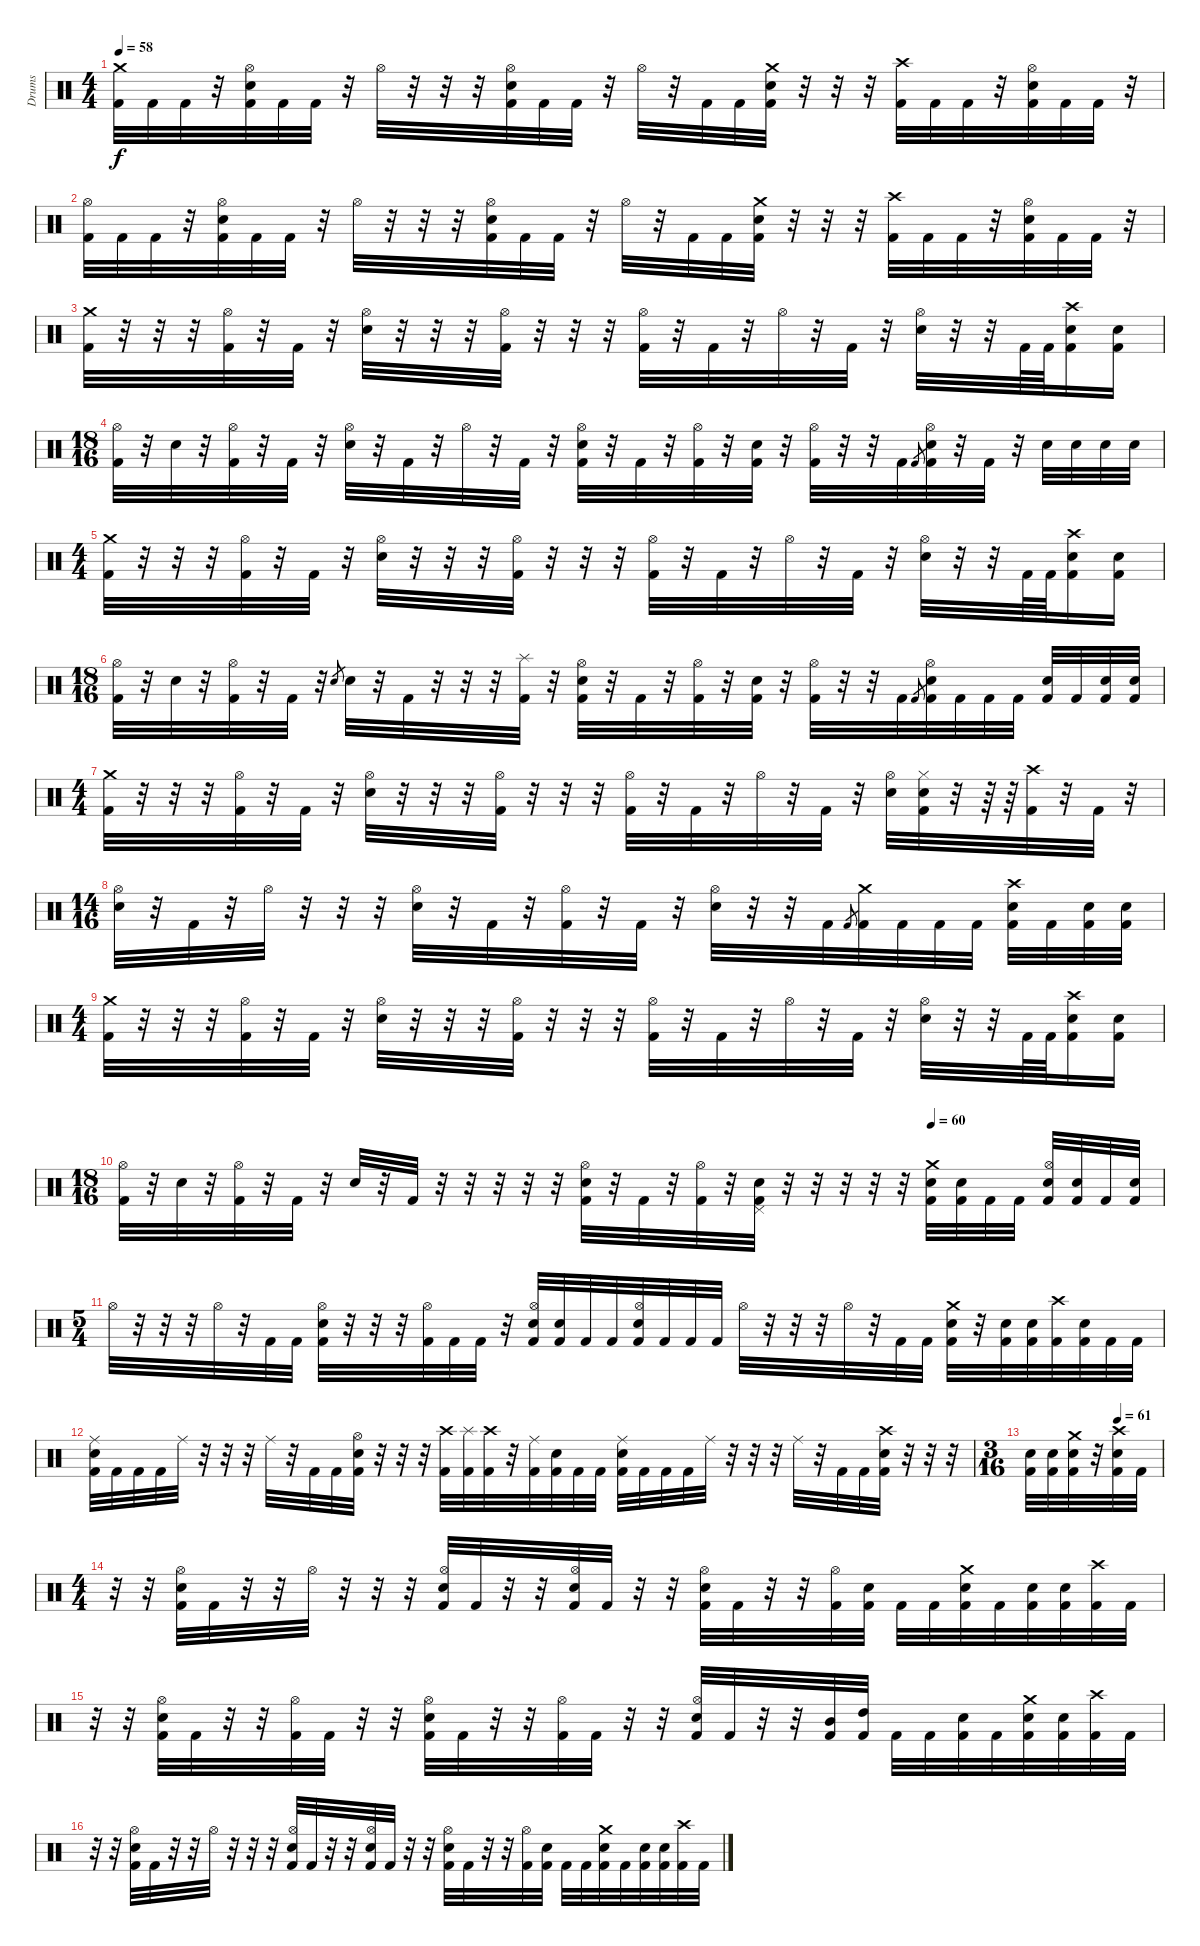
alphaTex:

\track ("Drums" "Drums") {instrument percussion}
\staff {score}
\articulation defaults
\ts (4 4)
\tempo 58
\clef neutral
\ks c
("Crash medium (hit)" "Kick (hit) 2").32{dy f} "Kick (hit) 2".32 "Kick (hit) 2".32 r.32 ("Hi-Hat (open)" "Electric Snare (hit)" "Kick (hit) 2").32 "Kick (hit) 2".32 "Kick (hit) 2".32 r.32 "Hi-Hat (open)".32 r.32 r.32 r.32 ("Hi-Hat (open)" "Electric Snare (hit)" "Kick (hit) 2").32 "Kick (hit) 2".32 "Kick (hit) 2".32 r.32 "Hi-Hat (open)".32 r.32 "Kick (hit) 2".32 "Kick (hit) 2".32 ("Crash medium (hit)" "Electric Snare (hit)" "Kick (hit) 2").32 r.32 r.32 r.32 ("Crash high (hit)" "Kick (hit) 2").32 "Kick (hit) 2".32 "Kick (hit) 2".32 r.32 ("Hi-Hat (open)" "Electric Snare (hit)" "Kick (hit) 2").32 "Kick (hit) 2".32 "Kick (hit) 2".32 r.32 |
("Hi-Hat (open)" "Kick (hit) 2").32 "Kick (hit) 2".32 "Kick (hit) 2".32 r.32 ("Hi-Hat (open)" "Electric Snare (hit)" "Kick (hit) 2").32 "Kick (hit) 2".32 "Kick (hit) 2".32 r.32 "Hi-Hat (open)".32 r.32 r.32 r.32 ("Hi-Hat (open)" "Electric Snare (hit)" "Kick (hit) 2").32 "Kick (hit) 2".32 "Kick (hit) 2".32 r.32 "Hi-Hat (open)".32 r.32 "Kick (hit) 2".32 "Kick (hit) 2".32 ("Crash medium (hit)" "Electric Snare (hit)" "Kick (hit) 2").32 r.32 r.32 r.32 ("Crash high (hit)" "Kick (hit) 2").32 "Kick (hit) 2".32 "Kick (hit) 2".32 r.32 ("Hi-Hat (open)" "Electric Snare (hit)" "Kick (hit) 2").32 "Kick (hit) 2".32 "Kick (hit) 2".32 r.32 |
("Crash medium (hit)" "Kick (hit) 2").32 r.32 r.32 r.32 ("Hi-Hat (open)" "Kick (hit) 2").32 r.32 "Kick (hit) 2".32 r.32 ("Hi-Hat (open)" "Electric Snare (hit)").32 r.32 r.32 r.32 ("Hi-Hat (open)" "Kick (hit) 2").32 r.32 r.32 r.32 ("Hi-Hat (open)" "Kick (hit) 2").32 r.32 "Kick (hit) 2".32 r.32 "Hi-Hat (open)".32 r.32 "Kick (hit) 2".32 r.32 ("Hi-Hat (open)" "Electric Snare (hit)").32 r.32 r.32 "Kick (hit) 2".64 "Kick (hit) 2".64 ("Crash high (hit)" "Electric Snare (hit)" "Kick (hit) 2").16 ("Electric Snare (hit)" "Kick (hit) 2").16 |
\ts (18 16)
("Hi-Hat (open)" "Kick (hit) 2").32 r.32 "Electric Snare (hit)".32 r.32 ("Hi-Hat (open)" "Kick (hit) 2").32 r.32 "Kick (hit) 2".32 r.32 ("Hi-Hat (open)" "Electric Snare (hit)").32 r.32 "Kick (hit) 2".32 r.32 "Hi-Hat (open)".32 r.32 "Kick (hit) 2".32 r.32 ("Hi-Hat (open)" "Electric Snare (hit)" "Kick (hit) 2").32 r.32 "Kick (hit) 2".32 r.32 ("Hi-Hat (open)" "Kick (hit) 2").32 r.32 ("Electric Snare (hit)" "Kick (hit) 2").32 r.32 ("Hi-Hat (open)" "Kick (hit) 2").32 r.32 r.32 "Kick (hit) 2".32 "Kick (hit) 2".8{gr} ("Hi-Hat (open)" "Electric Snare (hit)" "Kick (hit) 2").32 r.32 "Kick (hit) 2".32 r.32 "Electric Snare (hit)".32 "Electric Snare (hit)".32 "Electric Snare (hit)".32 "Electric Snare (hit)".32 |
\ts (4 4)
("Crash medium (hit)" "Kick (hit) 2").32 r.32 r.32 r.32 ("Hi-Hat (open)" "Kick (hit) 2").32 r.32 "Kick (hit) 2".32 r.32 ("Hi-Hat (open)" "Electric Snare (hit)").32 r.32 r.32 r.32 ("Hi-Hat (open)" "Kick (hit) 2").32 r.32 r.32 r.32 ("Hi-Hat (open)" "Kick (hit) 2").32 r.32 "Kick (hit) 2".32 r.32 "Hi-Hat (open)".32 r.32 "Kick (hit) 2".32 r.32 ("Hi-Hat (open)" "Electric Snare (hit)").32 r.32 r.32 "Kick (hit) 2".64 "Kick (hit) 2".64 ("Crash high (hit)" "Electric Snare (hit)" "Kick (hit) 2").16 ("Electric Snare (hit)" "Kick (hit) 2").16 |
\ts (18 16)
("Hi-Hat (open)" "Kick (hit) 2").32 r.32 "Electric Snare (hit)".32 r.32 ("Hi-Hat (open)" "Kick (hit) 2").32 r.32 "Kick (hit) 2".32 r.32 "Electric Snare (hit)".8{gr} "Electric Snare (hit)".32 r.32 "Kick (hit) 2".32 r.32 r.32 r.32 ("Splash (hit)" "Kick (hit) 2").32 r.32 ("Hi-Hat (open)" "Electric Snare (hit)" "Kick (hit) 2").32 r.32 "Kick (hit) 2".32 r.32 ("Hi-Hat (open)" "Kick (hit) 2").32 r.32 ("Electric Snare (hit)" "Kick (hit) 2").32 r.32 ("Hi-Hat (open)" "Kick (hit) 2").32 r.32 r.32 "Kick (hit) 2".32 "Kick (hit) 2".8{gr} ("Hi-Hat (open)" "Electric Snare (hit)" "Kick (hit) 2").32 "Kick (hit) 2".32 "Kick (hit) 2".32 "Kick (hit) 2".32 ("Electric Snare (hit)" "Kick (hit) 2").32 "Kick (hit) 2".32 ("Electric Snare (hit)" "Kick (hit) 2").32 ("Electric Snare (hit)" "Kick (hit) 2").32 |
\ts (4 4)
("Crash medium (hit)" "Kick (hit) 2").32 r.32 r.32 r.32 ("Hi-Hat (open)" "Kick (hit) 2").32 r.32 "Kick (hit) 2".32 r.32 ("Hi-Hat (open)" "Electric Snare (hit)").32 r.32 r.32 r.32 ("Hi-Hat (open)" "Kick (hit) 2").32 r.32 r.32 r.32 ("Hi-Hat (open)" "Kick (hit) 2").32 r.32 "Kick (hit) 2".32 r.32 "Hi-Hat (open)".32 r.32 "Kick (hit) 2".32 r.32 ("Hi-Hat (open)" "Electric Snare (hit)").32 ("Hi-Hat (closed)" "Electric Snare (hit)" "Kick (hit) 2").32 r.32 r.64 r.64 ("Crash high (hit)" "Kick (hit) 2").32 r.32 "Kick (hit) 2".32 r.32 |
\ts (14 16)
("Hi-Hat (open)" "Electric Snare (hit)").32 r.32 "Kick (hit) 2".32 r.32 "Hi-Hat (open)".32 r.32 r.32 r.32 ("Hi-Hat (open)" "Electric Snare (hit)").32 r.32 "Kick (hit) 2".32 r.32 ("Hi-Hat (open)" "Kick (hit) 2").32 r.32 "Kick (hit) 2".32 r.32 ("Hi-Hat (open)" "Electric Snare (hit)").32 r.32 r.32 "Kick (hit) 2".32 "Kick (hit) 2".8{gr} ("Crash medium (hit)" "Kick (hit) 2").32 "Kick (hit) 2".32 "Kick (hit) 2".32 "Kick (hit) 2".32 ("Crash high (hit)" "Electric Snare (hit)" "Kick (hit) 2").32 "Kick (hit) 2".32 ("Electric Snare (hit)" "Kick (hit) 2").32 ("Electric Snare (hit)" "Kick (hit) 2").32 |
\ts (4 4)
("Crash medium (hit)" "Kick (hit) 2").32 r.32 r.32 r.32 ("Hi-Hat (open)" "Kick (hit) 2").32 r.32 "Kick (hit) 2".32 r.32 ("Hi-Hat (open)" "Electric Snare (hit)").32 r.32 r.32 r.32 ("Hi-Hat (open)" "Kick (hit) 2").32 r.32 r.32 r.32 ("Hi-Hat (open)" "Kick (hit) 2").32 r.32 "Kick (hit) 2".32 r.32 "Hi-Hat (open)".32 r.32 "Kick (hit) 2".32 r.32 ("Hi-Hat (open)" "Electric Snare (hit)").32 r.32 r.32 "Kick (hit) 2".64 "Kick (hit) 2".64 ("Crash high (hit)" "Electric Snare (hit)" "Kick (hit) 2").16 ("Electric Snare (hit)" "Kick (hit) 2").16 |
\ts (18 16)
\tempo (60 0.7777777777777778)
("Hi-Hat (open)" "Kick (hit) 2").32 r.32 "Electric Snare (hit)".32 r.32 ("Hi-Hat (open)" "Kick (hit) 2").32 r.32 "Kick (hit) 2".32 r.32 "Electric Snare (hit)".32 r.32 "Kick (hit) 2".32 r.32 r.32 r.32 r.32 r.32 ("Hi-Hat (open)" "Electric Snare (hit)" "Kick (hit) 2").32 r.32 "Kick (hit) 2".32 r.32 ("Hi-Hat (open)" "Kick (hit) 2").32 r.32 ("Pedal Hi-Hat (hit)" "Electric Snare (hit)" "Kick (hit) 2").32 r.32 r.32 r.32 r.32 r.32 ("Crash medium (hit)" "Electric Snare (hit)" "Kick (hit) 2").32 ("Electric Snare (hit)" "Kick (hit) 2").32 "Kick (hit) 2".32 "Kick (hit) 2".32 ("Hi-Hat (open)" "Electric Snare (hit)" "Kick (hit) 2").32 ("Electric Snare (hit)" "Kick (hit) 2").32 "Kick (hit) 2".32 ("Electric Snare (hit)" "Kick (hit) 2").32 |
\ts (5 4)
"Hi-Hat (open)".32 r.32 r.32 r.32 "Hi-Hat (open)".32 r.32 "Kick (hit) 2".32 "Kick (hit) 2".32 ("Hi-Hat (open)" "Electric Snare (hit)" "Kick (hit) 2").32 r.32 r.32 r.32 ("Hi-Hat (open)" "Kick (hit) 2").32 "Kick (hit) 2".32 "Kick (hit) 2".32 r.32 ("Hi-Hat (open)" "Electric Snare (hit)" "Kick (hit) 2").32 ("Electric Snare (hit)" "Kick (hit) 2").32 "Kick (hit) 2".32 "Kick (hit) 2".32 ("Hi-Hat (open)" "Electric Snare (hit)" "Kick (hit) 2").32 "Kick (hit) 2".32 "Kick (hit) 2".32 "Kick (hit) 2".32 "Hi-Hat (open)".32 r.32 r.32 r.32 "Hi-Hat (open)".32 r.32 "Kick (hit) 2".32 "Kick (hit) 2".32 ("Crash medium (hit)" "Electric Snare (hit)" "Kick (hit) 2").32 r.32 ("Electric Snare (hit)" "Kick (hit) 2").32 ("Electric Snare (hit)" "Kick (hit) 2").32 ("Crash high (hit)" "Kick (hit) 2").32 ("Electric Snare (hit)" "Kick (hit) 2").32 "Kick (hit) 2".32 "Kick (hit) 2".32 |
("Ride (middle)" "Electric Snare (hit)" "Kick (hit) 2").32 "Kick (hit) 2".32 "Kick (hit) 2".32 "Kick (hit) 2".32 "Ride (middle)".32 r.32 r.32 r.32 "Ride (middle)".32 r.32 "Kick (hit) 2".32 "Kick (hit) 2".32 ("Hi-Hat (open)" "Electric Snare (hit)" "Kick (hit) 2").32 r.32 r.32 r.32 ("Crash high (hit)" "Kick (hit) 2").32 ("Splash (hit)" "Kick (hit) 2").32 ("Crash high (hit)" "Kick (hit) 2").32 r.32 ("Ride (middle)" "Kick (hit) 2").32 ("Electric Snare (hit)" "Kick (hit) 2").32 "Kick (hit) 2".32 "Kick (hit) 2".32 ("Ride (middle)" "Electric Snare (hit)" "Kick (hit) 2").32 "Kick (hit) 2".32 "Kick (hit) 2".32 "Kick (hit) 2".32 "Ride (middle)".32 r.32 r.32 r.32 "Ride (middle)".32 r.32 "Kick (hit) 2".32 "Kick (hit) 2".32 ("Crash high (hit)" "Electric Snare (hit)" "Kick (hit) 2").32 r.32 r.32 r.32 |
\ts (3 16)
\tempo (61 0.6666666666666666)
("Electric Snare (hit)" "Kick (hit) 2").32 ("Electric Snare (hit)" "Kick (hit) 2").32 ("Crash medium (hit)" "Electric Snare (hit)" "Kick (hit) 2").32 r.32 ("Crash high (hit)" "Electric Snare (hit)" "Kick (hit) 2").32 "Kick (hit) 2".32 |
\ts (4 4)
r.32 r.32 ("Hi-Hat (open)" "Electric Snare (hit)" "Kick (hit) 2").32 "Kick (hit) 2".32 r.32 r.32 "Hi-Hat (open)".32 r.32 r.32 r.32 ("Hi-Hat (open)" "Electric Snare (hit)" "Kick (hit) 2").32 "Kick (hit) 2".32 r.32 r.32 ("Hi-Hat (open)" "Electric Snare (hit)" "Kick (hit) 2").32 "Kick (hit) 2".32 r.32 r.32 ("Hi-Hat (open)" "Electric Snare (hit)" "Kick (hit) 2").32 "Kick (hit) 2".32 r.32 r.32 ("Hi-Hat (open)" "Kick (hit) 2").32 ("Electric Snare (hit)" "Kick (hit) 2").32 "Kick (hit) 2".32 "Kick (hit) 2".32 ("Crash medium (hit)" "Electric Snare (hit)" "Kick (hit) 2").32 "Kick (hit) 2".32 ("Electric Snare (hit)" "Kick (hit) 2").32 ("Electric Snare (hit)" "Kick (hit) 2").32 ("Crash high (hit)" "Kick (hit) 2").32 "Kick (hit) 2".32 |
r.32 r.32 ("Hi-Hat (open)" "Electric Snare (hit)" "Kick (hit) 2").32 "Kick (hit) 2".32 r.32 r.32 ("Hi-Hat (open)" "Kick (hit) 2").32 "Kick (hit) 2".32 r.32 r.32 ("Hi-Hat (open)" "Electric Snare (hit)" "Kick (hit) 2").32 "Kick (hit) 2".32 r.32 r.32 ("Hi-Hat (open)" "Kick (hit) 2").32 "Kick (hit) 2".32 r.32 r.32 ("Hi-Hat (open)" "Electric Snare (hit)" "Kick (hit) 2").32 "Kick (hit) 2".32 r.32 r.32 ("Mid Tom (hit)" "Kick (hit) 2").32 ("High Tom (hit)" "Kick (hit) 2").32 "Kick (hit) 2".32 "Kick (hit) 2".32 ("Electric Snare (hit)" "Kick (hit) 2").32 "Kick (hit) 2".32 ("Crash medium (hit)" "Electric Snare (hit)" "Kick (hit) 2").32 ("Electric Snare (hit)" "Kick (hit) 2").32 ("Crash high (hit)" "Kick (hit) 2").32 "Kick (hit) 2".32 |
r.32 r.32 ("Hi-Hat (open)" "Electric Snare (hit)" "Kick (hit) 2").32 "Kick (hit) 2".32 r.32 r.32 "Hi-Hat (open)".32 r.32 r.32 r.32 ("Hi-Hat (open)" "Electric Snare (hit)" "Kick (hit) 2").32 "Kick (hit) 2".32 r.32 r.32 ("Hi-Hat (open)" "Electric Snare (hit)" "Kick (hit) 2").32 "Kick (hit) 2".32 r.32 r.32 ("Hi-Hat (open)" "Electric Snare (hit)" "Kick (hit) 2").32 "Kick (hit) 2".32 r.32 r.32 ("Hi-Hat (open)" "Kick (hit) 2").32 ("Electric Snare (hit)" "Kick (hit) 2").32 "Kick (hit) 2".32 "Kick (hit) 2".32 ("Crash medium (hit)" "Electric Snare (hit)" "Kick (hit) 2").32 "Kick (hit) 2".32 ("Electric Snare (hit)" "Kick (hit) 2").32 ("Electric Snare (hit)" "Kick (hit) 2").32 ("Crash high (hit)" "Kick (hit) 2").32 "Kick (hit) 2".32
